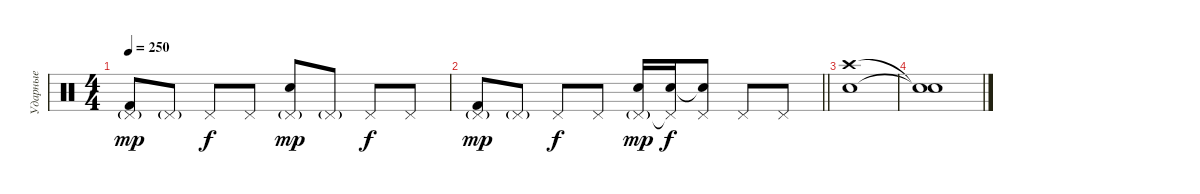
\track ("Ударные" "Ударные") {instrument percussion}
\staff {score}
\articulation defaults
\ts (4 4)
\tempo 250
\clef neutral
\ks c
("Pedal Hi-Hat (hit)"{g} "Kick (hit) 2").8{dy mp} "Pedal Hi-Hat (hit)"{g}.8 "Pedal Hi-Hat (hit)".8{dy f} "Pedal Hi-Hat (hit)".8 ("Pedal Hi-Hat (hit)"{g} "Electric Snare (hit)").8{dy mp} "Pedal Hi-Hat (hit)"{g}.8 "Pedal Hi-Hat (hit)".8{dy f} "Pedal Hi-Hat (hit)".8 |
\barLineRight lightlight
("Pedal Hi-Hat (hit)"{g} "Kick (hit) 2").8{dy mp} "Pedal Hi-Hat (hit)"{g}.8 "Pedal Hi-Hat (hit)".8{dy f} "Pedal Hi-Hat (hit)".8 ("Pedal Hi-Hat (hit)"{g} "Electric Snare (hit)").16{dy mp} ("Pedal Hi-Hat (hit)"{t} "Electric Snare (hit)").16{dy f} ("Pedal Hi-Hat (hit)" "Snare (hit)"{t}).8 "Pedal Hi-Hat (hit)".8 "Pedal Hi-Hat (hit)".8 |
("Crash high (hit)" "Electric Snare (hit)").1 |
("Snare (hit)"{t} "Snare (hit)"{t}).1
